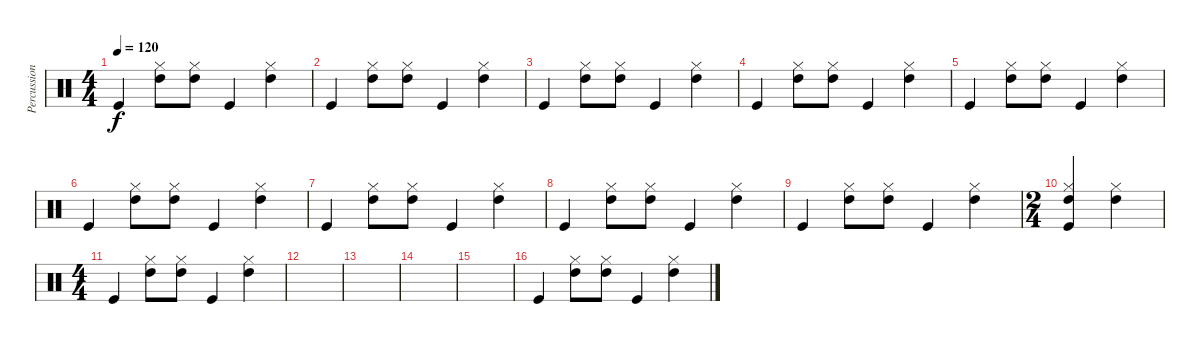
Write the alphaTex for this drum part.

\track ("Percussion" "Percussion") {instrument percussion}
\staff {score}
\articulation defaults
\ts (4 4)
\tempo 120
\clef neutral
\ks c "Kick (hit)".4{dy f}
("Hi-Hat (closed)" "High Tom (hit)").8 ("Hi-Hat (closed)" "High Tom (hit)").8 "Kick (hit)".4 ("Hi-Hat (closed)" "High Tom (hit)").4 |
"Kick (hit)".4 ("Hi-Hat (closed)" "High Tom (hit)").8 ("Hi-Hat (closed)" "High Tom (hit)").8 "Kick (hit)".4 ("Hi-Hat (closed)" "High Tom (hit)").4 |
"Kick (hit)".4 ("Hi-Hat (closed)" "High Tom (hit)").8 ("Hi-Hat (closed)" "High Tom (hit)").8 "Kick (hit)".4 ("Hi-Hat (closed)" "High Tom (hit)").4 |
"Kick (hit)".4 ("Hi-Hat (closed)" "High Tom (hit)").8 ("Hi-Hat (closed)" "High Tom (hit)").8 "Kick (hit)".4 ("Hi-Hat (closed)" "High Tom (hit)").4 |
"Kick (hit)".4 ("Hi-Hat (closed)" "High Tom (hit)").8 ("Hi-Hat (closed)" "High Tom (hit)").8 "Kick (hit)".4 ("Hi-Hat (closed)" "High Tom (hit)").4 |
"Kick (hit)".4 ("Hi-Hat (closed)" "High Tom (hit)").8 ("Hi-Hat (closed)" "High Tom (hit)").8 "Kick (hit)".4 ("Hi-Hat (closed)" "High Tom (hit)").4 |
"Kick (hit)".4 ("Hi-Hat (closed)" "High Tom (hit)").8 ("Hi-Hat (closed)" "High Tom (hit)").8 "Kick (hit)".4 ("Hi-Hat (closed)" "High Tom (hit)").4 |
"Kick (hit)".4 ("Hi-Hat (closed)" "High Tom (hit)").8 ("Hi-Hat (closed)" "High Tom (hit)").8 "Kick (hit)".4 ("Hi-Hat (closed)" "High Tom (hit)").4 |
"Kick (hit)".4 ("Hi-Hat (closed)" "High Tom (hit)").8 ("Hi-Hat (closed)" "High Tom (hit)").8 "Kick (hit)".4 ("Hi-Hat (closed)" "High Tom (hit)").4 |
\ts (2 4)
("Hi-Hat (closed)" "High Tom (hit)" "Kick (hit)").4 ("Hi-Hat (closed)" "High Tom (hit)").4 |
\ts (4 4)
"Kick (hit)".4 ("Hi-Hat (closed)" "High Tom (hit)").8 ("Hi-Hat (closed)" "High Tom (hit)").8 "Kick (hit)".4 ("Hi-Hat (closed)" "High Tom (hit)").4 |
|
|
|
|
"Kick (hit)".4 ("Hi-Hat (closed)" "High Tom (hit)").8 ("Hi-Hat (closed)" "High Tom (hit)").8 "Kick (hit)".4 ("Hi-Hat (closed)" "High Tom (hit)").4
